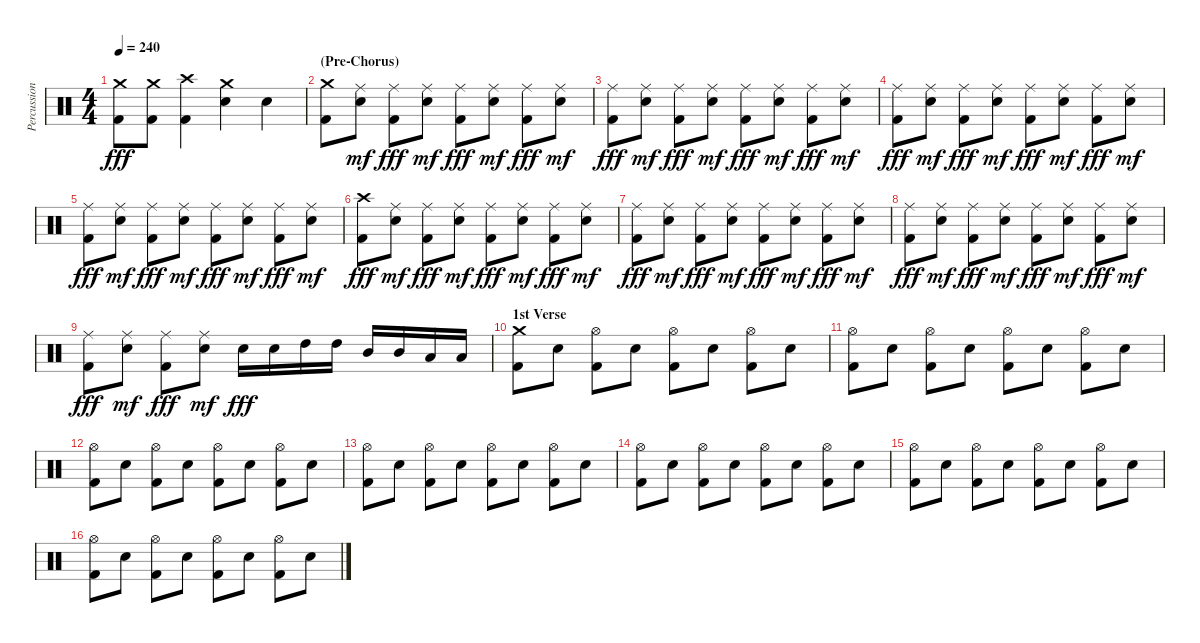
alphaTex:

\track ("Percussion" "Percussion") {instrument percussion}
\staff {score}
\articulation defaults
\ts (4 4)
\tempo 240
\clef neutral
\ks c
("Kick (hit) 2" "Crash medium (hit)").8{dy fff} ("Kick (hit) 2" "Crash medium (hit)").8 ("Kick (hit) 2" "Crash high (hit)").4 ("Electric Snare (hit)" "Crash medium (hit)").4 "Electric Snare (hit)".4 |
\section ("" "(Pre-Chorus)")
("Kick (hit) 2" "Crash medium (hit)").8 ("Electric Snare (hit)" "Ride (middle)").8{dy mf} ("Kick (hit) 2" "Ride (middle)").8{dy fff} ("Electric Snare (hit)" "Ride (middle)").8{dy mf} ("Kick (hit) 2" "Ride (middle)").8{dy fff} ("Electric Snare (hit)" "Ride (middle)").8{dy mf} ("Kick (hit) 2" "Ride (middle)").8{dy fff} ("Electric Snare (hit)" "Ride (middle)").8{dy mf} |
("Kick (hit) 2" "Ride (middle)").8{dy fff} ("Electric Snare (hit)" "Ride (middle)").8{dy mf} ("Kick (hit) 2" "Ride (middle)").8{dy fff} ("Electric Snare (hit)" "Ride (middle)").8{dy mf} ("Kick (hit) 2" "Ride (middle)").8{dy fff} ("Electric Snare (hit)" "Ride (middle)").8{dy mf} ("Kick (hit) 2" "Ride (middle)").8{dy fff} ("Electric Snare (hit)" "Ride (middle)").8{dy mf} |
("Kick (hit) 2" "Ride (middle)").8{dy fff} ("Electric Snare (hit)" "Ride (middle)").8{dy mf} ("Kick (hit) 2" "Ride (middle)").8{dy fff} ("Electric Snare (hit)" "Ride (middle)").8{dy mf} ("Kick (hit) 2" "Ride (middle)").8{dy fff} ("Electric Snare (hit)" "Ride (middle)").8{dy mf} ("Kick (hit) 2" "Ride (middle)").8{dy fff} ("Electric Snare (hit)" "Ride (middle)").8{dy mf} |
("Kick (hit) 2" "Ride (middle)").8{dy fff} ("Electric Snare (hit)" "Ride (middle)").8{dy mf} ("Kick (hit) 2" "Ride (middle)").8{dy fff} ("Electric Snare (hit)" "Ride (middle)").8{dy mf} ("Kick (hit) 2" "Ride (middle)").8{dy fff} ("Electric Snare (hit)" "Ride (middle)").8{dy mf} ("Kick (hit) 2" "Ride (middle)").8{dy fff} ("Electric Snare (hit)" "Ride (middle)").8{dy mf} |
("Kick (hit) 2" "Crash high (hit)").8{dy fff} ("Electric Snare (hit)" "Ride (middle)").8{dy mf} ("Kick (hit) 2" "Ride (middle)").8{dy fff} ("Electric Snare (hit)" "Ride (middle)").8{dy mf} ("Kick (hit) 2" "Ride (middle)").8{dy fff} ("Electric Snare (hit)" "Ride (middle)").8{dy mf} ("Kick (hit) 2" "Ride (middle)").8{dy fff} ("Electric Snare (hit)" "Ride (middle)").8{dy mf} |
("Kick (hit) 2" "Ride (middle)").8{dy fff} ("Electric Snare (hit)" "Ride (middle)").8{dy mf} ("Kick (hit) 2" "Ride (middle)").8{dy fff} ("Electric Snare (hit)" "Ride (middle)").8{dy mf} ("Kick (hit) 2" "Ride (middle)").8{dy fff} ("Electric Snare (hit)" "Ride (middle)").8{dy mf} ("Kick (hit) 2" "Ride (middle)").8{dy fff} ("Electric Snare (hit)" "Ride (middle)").8{dy mf} |
("Kick (hit) 2" "Ride (middle)").8{dy fff} ("Electric Snare (hit)" "Ride (middle)").8{dy mf} ("Kick (hit) 2" "Ride (middle)").8{dy fff} ("Electric Snare (hit)" "Ride (middle)").8{dy mf} ("Kick (hit) 2" "Ride (middle)").8{dy fff} ("Electric Snare (hit)" "Ride (middle)").8{dy mf} ("Kick (hit) 2" "Ride (middle)").8{dy fff} ("Electric Snare (hit)" "Ride (middle)").8{dy mf} |
("Kick (hit) 2" "Ride (middle)").8{dy fff} ("Electric Snare (hit)" "Ride (middle)").8{dy mf} ("Kick (hit) 2" "Ride (middle)").8{dy fff} ("Electric Snare (hit)" "Ride (middle)").8{dy mf} "Electric Snare (hit)".16{dy fff} "Electric Snare (hit)".16 "High Tom (hit)".16 "High Tom (hit)".16 "Mid Tom (hit)".16 "Mid Tom (hit)".16 "Low Tom (hit)".16 "Low Tom (hit)".16 |
\section ("" "1st Verse")
("Kick (hit) 2" "Crash medium (hit)").8 "Electric Snare (hit)".8 ("Kick (hit) 2" "Hi-Hat (open)").8 "Electric Snare (hit)".8 ("Kick (hit) 2" "Hi-Hat (open)").8 "Electric Snare (hit)".8 ("Kick (hit) 2" "Hi-Hat (open)").8 "Electric Snare (hit)".8 |
("Kick (hit) 2" "Hi-Hat (open)").8 "Electric Snare (hit)".8 ("Kick (hit) 2" "Hi-Hat (open)").8 "Electric Snare (hit)".8 ("Kick (hit) 2" "Hi-Hat (open)").8 "Electric Snare (hit)".8 ("Kick (hit) 2" "Hi-Hat (open)").8 "Electric Snare (hit)".8 |
("Kick (hit) 2" "Hi-Hat (open)").8 "Electric Snare (hit)".8 ("Kick (hit) 2" "Hi-Hat (open)").8 "Electric Snare (hit)".8 ("Kick (hit) 2" "Hi-Hat (open)").8 "Electric Snare (hit)".8 ("Kick (hit) 2" "Hi-Hat (open)").8 "Electric Snare (hit)".8 |
("Kick (hit) 2" "Hi-Hat (open)").8 "Electric Snare (hit)".8 ("Kick (hit) 2" "Hi-Hat (open)").8 "Electric Snare (hit)".8 ("Kick (hit) 2" "Hi-Hat (open)").8 "Electric Snare (hit)".8 ("Kick (hit) 2" "Hi-Hat (open)").8 "Electric Snare (hit)".8 |
("Kick (hit) 2" "Hi-Hat (open)").8 "Electric Snare (hit)".8 ("Kick (hit) 2" "Hi-Hat (open)").8 "Electric Snare (hit)".8 ("Kick (hit) 2" "Hi-Hat (open)").8 "Electric Snare (hit)".8 ("Kick (hit) 2" "Hi-Hat (open)").8 "Electric Snare (hit)".8 |
("Kick (hit) 2" "Hi-Hat (open)").8 "Electric Snare (hit)".8 ("Kick (hit) 2" "Hi-Hat (open)").8 "Electric Snare (hit)".8 ("Kick (hit) 2" "Hi-Hat (open)").8 "Electric Snare (hit)".8 ("Kick (hit) 2" "Hi-Hat (open)").8 "Electric Snare (hit)".8 |
("Kick (hit) 2" "Hi-Hat (open)").8 "Electric Snare (hit)".8 ("Kick (hit) 2" "Hi-Hat (open)").8 "Electric Snare (hit)".8 ("Kick (hit) 2" "Hi-Hat (open)").8 "Electric Snare (hit)".8 ("Kick (hit) 2" "Hi-Hat (open)").8 "Electric Snare (hit)".8
